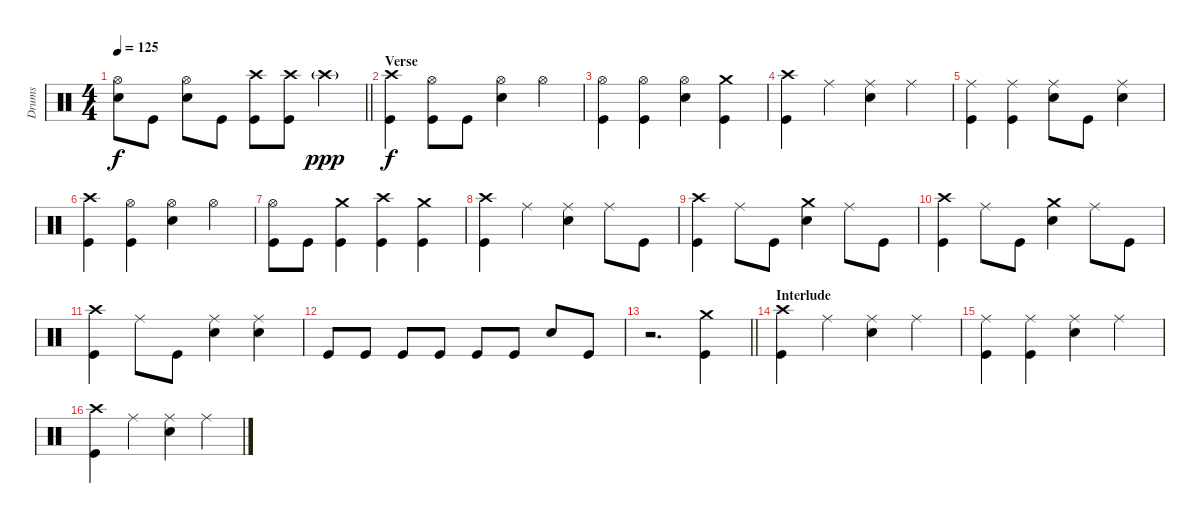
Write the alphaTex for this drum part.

\track ("Drums" "Drums") {instrument percussion}
\staff {score}
\articulation defaults
\ts (4 4)
\tempo 125
\clef neutral
\barLineRight lightlight
\ks c
("Hi-Hat (open)" "Snare (hit) 2").8{dy f} "Kick (hit)".8 ("Hi-Hat (open)" "Snare (hit) 2").8 "Kick (hit)".8 ("Crash high (hit)" "Kick (hit)").8 ("Crash high (hit)" "Kick (hit)").8 "Crash high (hit)"{g}.4{dy ppp} |
\section ("" "Verse")
("Crash high (hit)" "Kick (hit)").4{dy f} ("Hi-Hat (open)" "Kick (hit)").8 "Kick (hit)".8 ("Hi-Hat (open)" "Snare (hit) 2").4 "Hi-Hat (open)".4 |
("Hi-Hat (open)" "Kick (hit)").4 ("Hi-Hat (open)" "Kick (hit)").4 ("Hi-Hat (open)" "Snare (hit) 2").4 ("Crash medium (hit)" "Kick (hit)").4 |
("Crash high (hit)" "Kick (hit)").4 "Ride (middle)".4 ("Ride (middle)" "Snare (hit) 2").4 "Ride (middle)".4 |
("Ride (middle)" "Kick (hit)").4 ("Ride (middle)" "Kick (hit)").4 ("Ride (middle)" "Snare (hit) 2").8 "Kick (hit)".8 ("Ride (middle)" "Snare (hit) 2").4 |
("Crash high (hit)" "Kick (hit)").4 ("Hi-Hat (open)" "Kick (hit)").4 ("Hi-Hat (open)" "Snare (hit) 2").4 "Hi-Hat (open)".4 |
("Hi-Hat (open)" "Kick (hit)").8 "Kick (hit)".8 ("Crash medium (hit)" "Kick (hit)").4 ("Crash high (hit)" "Kick (hit)").4 ("Crash medium (hit)" "Kick (hit)").4 |
("Crash high (hit)" "Kick (hit)").4 "Ride (middle)".4 ("Ride (middle)" "Snare (hit) 2").4 "Ride (middle)".8 "Kick (hit)".8 |
("Crash high (hit)" "Kick (hit)").4 "Ride (middle)".8 "Kick (hit)".8 ("Crash medium (hit)" "Snare (hit) 2").4 "Ride (middle)".8 "Kick (hit)".8 |
("Crash high (hit)" "Kick (hit)").4 "Ride (middle)".8 "Kick (hit)".8 ("Crash medium (hit)" "Snare (hit) 2").4 "Ride (middle)".8 "Kick (hit)".8 |
("Crash high (hit)" "Kick (hit)").4 "Ride (middle)".8 "Kick (hit)".8 ("Ride (middle)" "Snare (hit) 2").4 ("Ride (middle)" "Snare (hit) 2").4 |
"Kick (hit)".8 "Kick (hit)".8 "Kick (hit)".8 "Kick (hit)".8 "Kick (hit)".8 "Kick (hit)".8 "Snare (hit) 2".8 "Kick (hit)".8 |
\barLineRight lightlight
r.2{d} ("Crash medium (hit)" "Kick (hit)").4 |
\section ("" "Interlude")
("Crash high (hit)" "Kick (hit)").4 "Ride (middle)".4 ("Ride (middle)" "Snare (hit) 2").4 "Ride (middle)".4 |
("Ride (middle)" "Kick (hit)").4 ("Ride (middle)" "Kick (hit)").4 ("Ride (middle)" "Snare (hit) 2").4 "Ride (middle)".4 |
("Crash high (hit)" "Kick (hit)").4 "Ride (middle)".4 ("Ride (middle)" "Snare (hit) 2").4 "Ride (middle)".4
